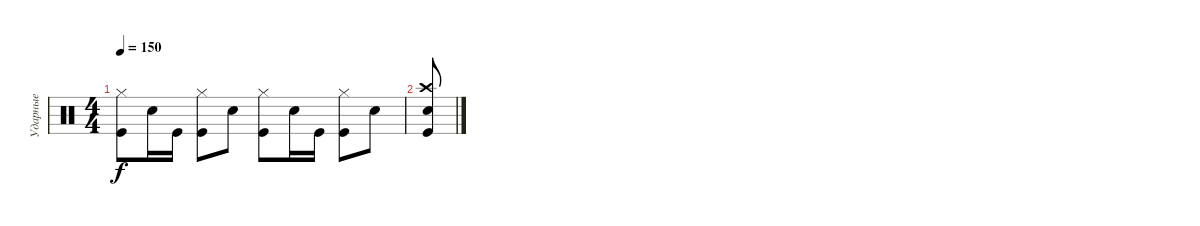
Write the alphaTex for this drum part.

\track ("Ударные" "Ударные") {instrument percussion}
\staff {score}
\articulation defaults
\ts (4 4)
\tempo 150
\clef neutral
\ks c
("Hi-Hat (closed)" "Kick (hit)").8{dy f} "Snare (hit) 2".16 "Kick (hit)".16 ("Hi-Hat (closed)" "Kick (hit)").8 "Snare (hit) 2".8 ("Hi-Hat (closed)" "Kick (hit)").8 "Snare (hit) 2".16 "Kick (hit)".16 ("Hi-Hat (closed)" "Kick (hit)").8 "Snare (hit) 2".8 |
("Crash high (hit)" "Electric Snare (hit)" "Kick (hit)").8
